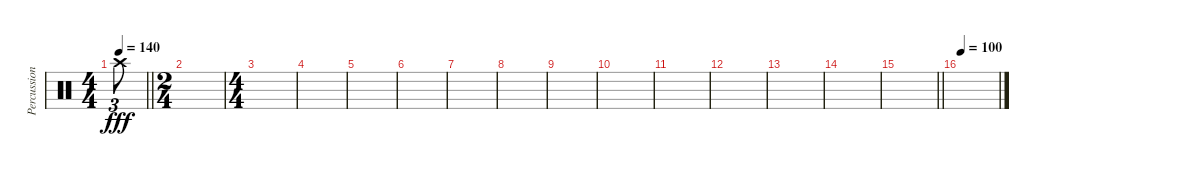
\track ("Percussions" "Percussion") {instrument percussion}
\staff {score}
\articulation defaults
\ts (4 4)
\tempo 140
\clef neutral
\barLineRight lightlight
\ks c "Crash high (hit)".8{tu (3 2) dy fff}
|
\ts (2 4)
|
\ts (4 4)
|
|
|
|
|
|
|
|
|
|
|
|
\barLineRight lightlight
|
\tempo 100
